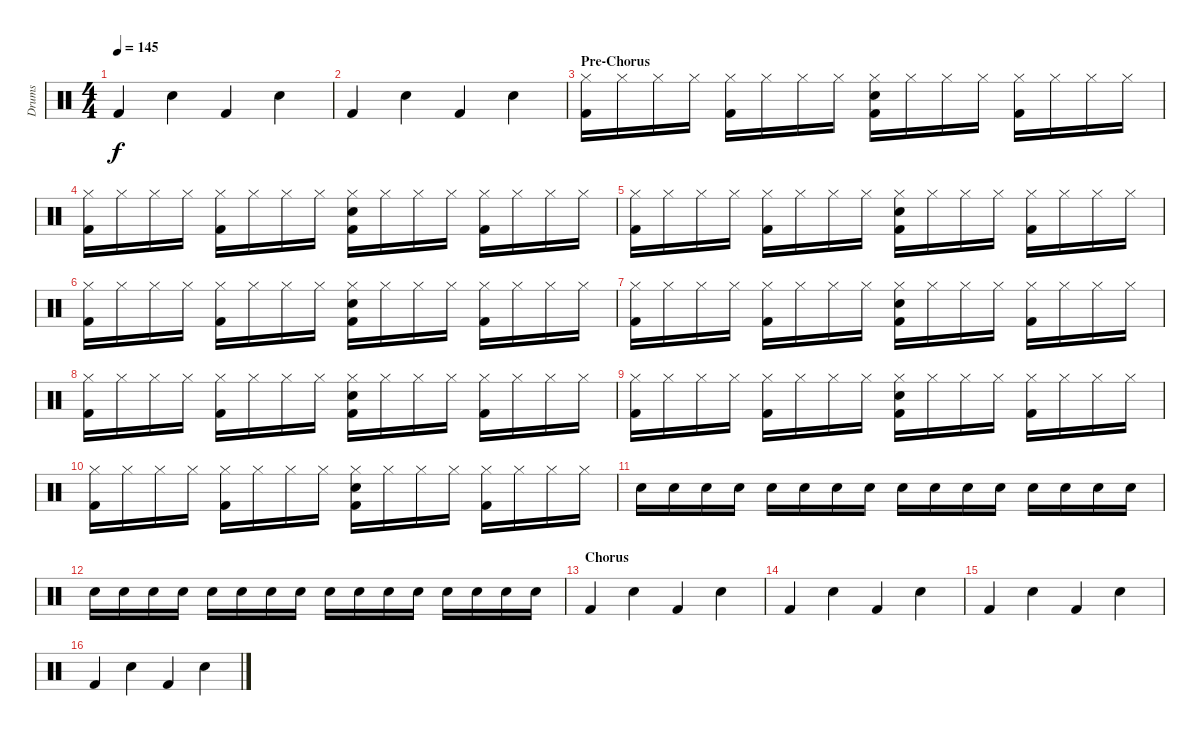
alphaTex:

\track ("Drums" "Drums") {instrument percussion}
\staff {score}
\articulation defaults
\ts (4 4)
\tempo 145
\clef neutral
\ks c "Kick (hit) 2".4{dy f} "Snare (hit) 2".4 "Kick (hit) 2".4 "Snare (hit) 2".4
|
"Kick (hit) 2".4 "Snare (hit) 2".4 "Kick (hit) 2".4 "Snare (hit) 2".4 |
\section ("" "Pre-Chorus")
("Hi-Hat (closed)" "Kick (hit) 2").16 "Hi-Hat (closed)".16 "Hi-Hat (closed)".16 "Hi-Hat (closed)".16 ("Hi-Hat (closed)" "Kick (hit) 2").16 "Hi-Hat (closed)".16 "Hi-Hat (closed)".16 "Hi-Hat (closed)".16 ("Snare (hit) 2" "Hi-Hat (closed)" "Kick (hit) 2").16 "Hi-Hat (closed)".16 "Hi-Hat (closed)".16 "Hi-Hat (closed)".16 ("Hi-Hat (closed)" "Kick (hit) 2").16 "Hi-Hat (closed)".16 "Hi-Hat (closed)".16 "Hi-Hat (closed)".16 |
("Hi-Hat (closed)" "Kick (hit) 2").16 "Hi-Hat (closed)".16 "Hi-Hat (closed)".16 "Hi-Hat (closed)".16 ("Hi-Hat (closed)" "Kick (hit) 2").16 "Hi-Hat (closed)".16 "Hi-Hat (closed)".16 "Hi-Hat (closed)".16 ("Snare (hit) 2" "Hi-Hat (closed)" "Kick (hit) 2").16 "Hi-Hat (closed)".16 "Hi-Hat (closed)".16 "Hi-Hat (closed)".16 ("Hi-Hat (closed)" "Kick (hit) 2").16 "Hi-Hat (closed)".16 "Hi-Hat (closed)".16 "Hi-Hat (closed)".16 |
("Hi-Hat (closed)" "Kick (hit) 2").16 "Hi-Hat (closed)".16 "Hi-Hat (closed)".16 "Hi-Hat (closed)".16 ("Hi-Hat (closed)" "Kick (hit) 2").16 "Hi-Hat (closed)".16 "Hi-Hat (closed)".16 "Hi-Hat (closed)".16 ("Snare (hit) 2" "Hi-Hat (closed)" "Kick (hit) 2").16 "Hi-Hat (closed)".16 "Hi-Hat (closed)".16 "Hi-Hat (closed)".16 ("Hi-Hat (closed)" "Kick (hit) 2").16 "Hi-Hat (closed)".16 "Hi-Hat (closed)".16 "Hi-Hat (closed)".16 |
("Hi-Hat (closed)" "Kick (hit) 2").16 "Hi-Hat (closed)".16 "Hi-Hat (closed)".16 "Hi-Hat (closed)".16 ("Hi-Hat (closed)" "Kick (hit) 2").16 "Hi-Hat (closed)".16 "Hi-Hat (closed)".16 "Hi-Hat (closed)".16 ("Snare (hit) 2" "Hi-Hat (closed)" "Kick (hit) 2").16 "Hi-Hat (closed)".16 "Hi-Hat (closed)".16 "Hi-Hat (closed)".16 ("Hi-Hat (closed)" "Kick (hit) 2").16 "Hi-Hat (closed)".16 "Hi-Hat (closed)".16 "Hi-Hat (closed)".16 |
("Hi-Hat (closed)" "Kick (hit) 2").16 "Hi-Hat (closed)".16 "Hi-Hat (closed)".16 "Hi-Hat (closed)".16 ("Hi-Hat (closed)" "Kick (hit) 2").16 "Hi-Hat (closed)".16 "Hi-Hat (closed)".16 "Hi-Hat (closed)".16 ("Snare (hit) 2" "Hi-Hat (closed)" "Kick (hit) 2").16 "Hi-Hat (closed)".16 "Hi-Hat (closed)".16 "Hi-Hat (closed)".16 ("Hi-Hat (closed)" "Kick (hit) 2").16 "Hi-Hat (closed)".16 "Hi-Hat (closed)".16 "Hi-Hat (closed)".16 |
("Hi-Hat (closed)" "Kick (hit) 2").16 "Hi-Hat (closed)".16 "Hi-Hat (closed)".16 "Hi-Hat (closed)".16 ("Hi-Hat (closed)" "Kick (hit) 2").16 "Hi-Hat (closed)".16 "Hi-Hat (closed)".16 "Hi-Hat (closed)".16 ("Snare (hit) 2" "Hi-Hat (closed)" "Kick (hit) 2").16 "Hi-Hat (closed)".16 "Hi-Hat (closed)".16 "Hi-Hat (closed)".16 ("Hi-Hat (closed)" "Kick (hit) 2").16 "Hi-Hat (closed)".16 "Hi-Hat (closed)".16 "Hi-Hat (closed)".16 |
("Hi-Hat (closed)" "Kick (hit) 2").16 "Hi-Hat (closed)".16 "Hi-Hat (closed)".16 "Hi-Hat (closed)".16 ("Hi-Hat (closed)" "Kick (hit) 2").16 "Hi-Hat (closed)".16 "Hi-Hat (closed)".16 "Hi-Hat (closed)".16 ("Snare (hit) 2" "Hi-Hat (closed)" "Kick (hit) 2").16 "Hi-Hat (closed)".16 "Hi-Hat (closed)".16 "Hi-Hat (closed)".16 ("Hi-Hat (closed)" "Kick (hit) 2").16 "Hi-Hat (closed)".16 "Hi-Hat (closed)".16 "Hi-Hat (closed)".16 |
("Hi-Hat (closed)" "Kick (hit) 2").16 "Hi-Hat (closed)".16 "Hi-Hat (closed)".16 "Hi-Hat (closed)".16 ("Hi-Hat (closed)" "Kick (hit) 2").16 "Hi-Hat (closed)".16 "Hi-Hat (closed)".16 "Hi-Hat (closed)".16 ("Snare (hit) 2" "Hi-Hat (closed)" "Kick (hit) 2").16 "Hi-Hat (closed)".16 "Hi-Hat (closed)".16 "Hi-Hat (closed)".16 ("Hi-Hat (closed)" "Kick (hit) 2").16 "Hi-Hat (closed)".16 "Hi-Hat (closed)".16 "Hi-Hat (closed)".16 |
"Snare (hit) 2".16{volume 9} "Snare (hit) 2".16{volume 16} "Snare (hit) 2".16 "Snare (hit) 2".16 "Snare (hit) 2".16 "Snare (hit) 2".16 "Snare (hit) 2".16 "Snare (hit) 2".16 "Snare (hit) 2".16 "Snare (hit) 2".16 "Snare (hit) 2".16 "Snare (hit) 2".16 "Snare (hit) 2".16 "Snare (hit) 2".16 "Snare (hit) 2".16 "Snare (hit) 2".16 |
"Snare (hit) 2".16 "Snare (hit) 2".16 "Snare (hit) 2".16 "Snare (hit) 2".16 "Snare (hit) 2".16 "Snare (hit) 2".16 "Snare (hit) 2".16 "Snare (hit) 2".16 "Snare (hit) 2".16 "Snare (hit) 2".16 "Snare (hit) 2".16 "Snare (hit) 2".16 "Snare (hit) 2".16 "Snare (hit) 2".16 "Snare (hit) 2".16 "Snare (hit) 2".16 |
\section ("" "Chorus")
"Kick (hit) 2".4 "Snare (hit) 2".4 "Kick (hit) 2".4 "Snare (hit) 2".4 |
"Kick (hit) 2".4 "Snare (hit) 2".4 "Kick (hit) 2".4 "Snare (hit) 2".4 |
"Kick (hit) 2".4 "Snare (hit) 2".4 "Kick (hit) 2".4 "Snare (hit) 2".4 |
"Kick (hit) 2".4 "Snare (hit) 2".4 "Kick (hit) 2".4 "Snare (hit) 2".4
